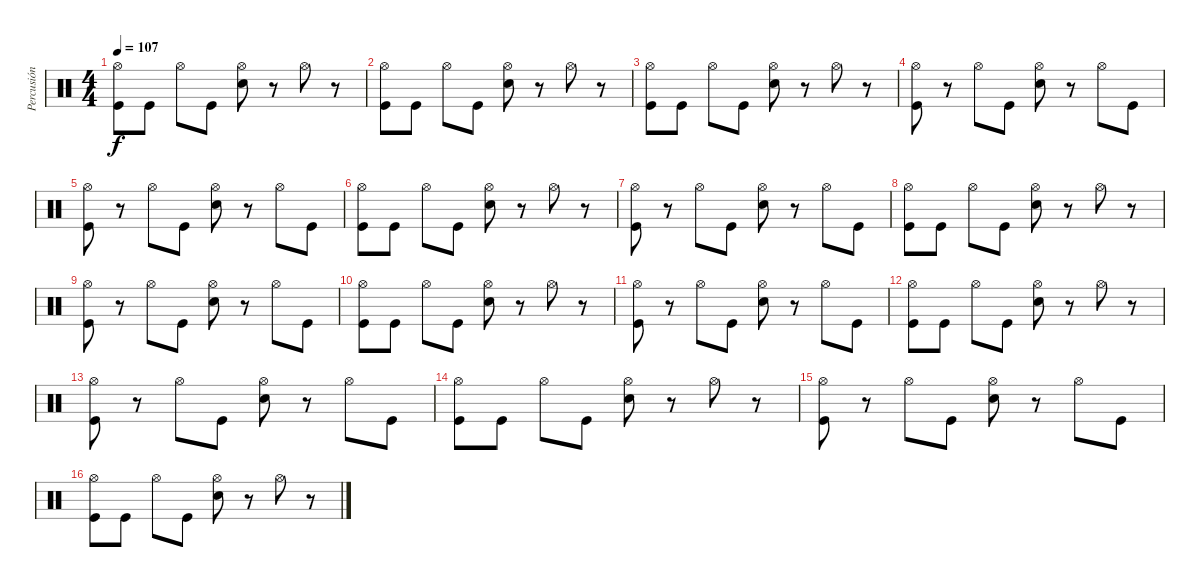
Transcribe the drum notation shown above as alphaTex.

\track ("Percusión" "Percusión") {instrument percussion}
\staff {score}
\articulation defaults
\ts (4 4)
\tempo 107
\clef neutral
\ks c
("Hi-Hat (open)" "Kick (hit)").8{dy f} "Kick (hit)".8 "Hi-Hat (open)".8 "Kick (hit)".8 ("Hi-Hat (open)" "Snare (hit) 2").8 r.8 "Hi-Hat (open)".8 r.8 |
("Hi-Hat (open)" "Kick (hit)").8 "Kick (hit)".8 "Hi-Hat (open)".8 "Kick (hit)".8 ("Hi-Hat (open)" "Snare (hit) 2").8 r.8 "Hi-Hat (open)".8 r.8 |
("Hi-Hat (open)" "Kick (hit)").8 "Kick (hit)".8 "Hi-Hat (open)".8 "Kick (hit)".8 ("Hi-Hat (open)" "Snare (hit) 2").8 r.8 "Hi-Hat (open)".8 r.8 |
("Hi-Hat (open)" "Kick (hit)").8 r.8 "Hi-Hat (open)".8 "Kick (hit)".8 ("Hi-Hat (open)" "Snare (hit) 2").8 r.8 "Hi-Hat (open)".8 "Kick (hit)".8 |
("Hi-Hat (open)" "Kick (hit)").8 r.8 "Hi-Hat (open)".8 "Kick (hit)".8 ("Hi-Hat (open)" "Snare (hit) 2").8 r.8 "Hi-Hat (open)".8 "Kick (hit)".8 |
("Hi-Hat (open)" "Kick (hit)").8 "Kick (hit)".8 "Hi-Hat (open)".8 "Kick (hit)".8 ("Hi-Hat (open)" "Snare (hit) 2").8 r.8 "Hi-Hat (open)".8 r.8 |
("Hi-Hat (open)" "Kick (hit)").8 r.8 "Hi-Hat (open)".8 "Kick (hit)".8 ("Hi-Hat (open)" "Snare (hit) 2").8 r.8 "Hi-Hat (open)".8 "Kick (hit)".8 |
("Hi-Hat (open)" "Kick (hit)").8 "Kick (hit)".8 "Hi-Hat (open)".8 "Kick (hit)".8 ("Hi-Hat (open)" "Snare (hit) 2").8 r.8 "Hi-Hat (open)".8 r.8 |
("Hi-Hat (open)" "Kick (hit)").8 r.8 "Hi-Hat (open)".8 "Kick (hit)".8 ("Hi-Hat (open)" "Snare (hit) 2").8 r.8 "Hi-Hat (open)".8 "Kick (hit)".8 |
("Hi-Hat (open)" "Kick (hit)").8 "Kick (hit)".8 "Hi-Hat (open)".8 "Kick (hit)".8 ("Hi-Hat (open)" "Snare (hit) 2").8 r.8 "Hi-Hat (open)".8 r.8 |
("Hi-Hat (open)" "Kick (hit)").8 r.8 "Hi-Hat (open)".8 "Kick (hit)".8 ("Hi-Hat (open)" "Snare (hit) 2").8 r.8 "Hi-Hat (open)".8 "Kick (hit)".8 |
("Hi-Hat (open)" "Kick (hit)").8 "Kick (hit)".8 "Hi-Hat (open)".8 "Kick (hit)".8 ("Hi-Hat (open)" "Snare (hit) 2").8 r.8 "Hi-Hat (open)".8 r.8 |
("Hi-Hat (open)" "Kick (hit)").8 r.8 "Hi-Hat (open)".8 "Kick (hit)".8 ("Hi-Hat (open)" "Snare (hit) 2").8 r.8 "Hi-Hat (open)".8 "Kick (hit)".8 |
("Hi-Hat (open)" "Kick (hit)").8 "Kick (hit)".8 "Hi-Hat (open)".8 "Kick (hit)".8 ("Hi-Hat (open)" "Snare (hit) 2").8 r.8 "Hi-Hat (open)".8 r.8 |
("Hi-Hat (open)" "Kick (hit)").8 r.8 "Hi-Hat (open)".8 "Kick (hit)".8 ("Hi-Hat (open)" "Snare (hit) 2").8 r.8 "Hi-Hat (open)".8 "Kick (hit)".8 |
("Hi-Hat (open)" "Kick (hit)").8 "Kick (hit)".8 "Hi-Hat (open)".8 "Kick (hit)".8 ("Hi-Hat (open)" "Snare (hit) 2").8 r.8 "Hi-Hat (open)".8 r.8
